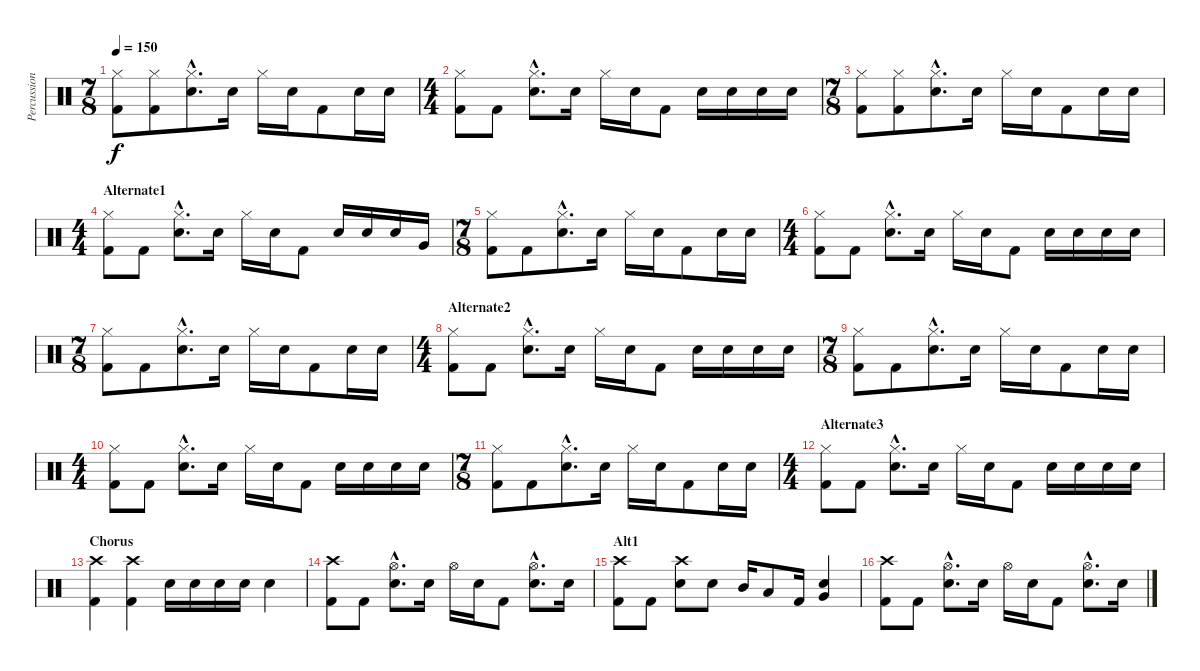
\track ("Percussion" "Percussion") {instrument percussion}
\staff {score}
\articulation defaults
\ts (7 8)
\tempo 150
\clef neutral
\ks c
("Hi-Hat (closed)" "Kick (hit) 2").8{dy f} ("Hi-Hat (closed)" "Kick (hit) 2").8 ("Hi-Hat (closed)"{hac} "Electric Snare (hit)"{hac}).8{d} "Electric Snare (hit)".16 "Hi-Hat (closed)".16 "Electric Snare (hit)".16 "Kick (hit) 2".8 "Electric Snare (hit)".16 "Electric Snare (hit)".16 |
\ts (4 4)
("Hi-Hat (closed)" "Kick (hit) 2").8 "Kick (hit) 2".8 ("Hi-Hat (closed)"{hac} "Electric Snare (hit)"{hac}).8{d} "Electric Snare (hit)".16 "Hi-Hat (closed)".16 "Electric Snare (hit)".16 "Kick (hit) 2".8 "Electric Snare (hit)".16 "Electric Snare (hit)".16 "Electric Snare (hit)".16 "Electric Snare (hit)".16 |
\ts (7 8)
("Hi-Hat (closed)" "Kick (hit) 2").8 ("Hi-Hat (closed)" "Kick (hit) 2").8 ("Hi-Hat (closed)"{hac} "Electric Snare (hit)"{hac}).8{d} "Electric Snare (hit)".16 "Hi-Hat (closed)".16 "Electric Snare (hit)".16 "Kick (hit) 2".8 "Electric Snare (hit)".16 "Electric Snare (hit)".16 |
\ts (4 4)
\section ("" "Alternate1")
("Hi-Hat (closed)" "Kick (hit) 2").8 "Kick (hit) 2".8 ("Hi-Hat (closed)"{hac} "Electric Snare (hit)"{hac}).8{d} "Electric Snare (hit)".16 "Hi-Hat (closed)".16 "Electric Snare (hit)".16 "Kick (hit) 2".8 "Electric Snare (hit)".16 "Electric Snare (hit)".16 "Electric Snare (hit)".16 "Very Low Tom (hit)".16 |
\ts (7 8)
("Hi-Hat (closed)" "Kick (hit) 2").8 "Kick (hit) 2".8 ("Hi-Hat (closed)"{hac} "Electric Snare (hit)"{hac}).8{d} "Electric Snare (hit)".16 "Hi-Hat (closed)".16 "Electric Snare (hit)".16 "Kick (hit) 2".8 "Electric Snare (hit)".16 "Electric Snare (hit)".16 |
\ts (4 4)
("Hi-Hat (closed)" "Kick (hit) 2").8 "Kick (hit) 2".8 ("Hi-Hat (closed)"{hac} "Electric Snare (hit)"{hac}).8{d} "Electric Snare (hit)".16 "Hi-Hat (closed)".16 "Electric Snare (hit)".16 "Kick (hit) 2".8 "Electric Snare (hit)".16 "Electric Snare (hit)".16 "Electric Snare (hit)".16 "Electric Snare (hit)".16 |
\ts (7 8)
("Hi-Hat (closed)" "Kick (hit) 2").8 "Kick (hit) 2".8 ("Hi-Hat (closed)"{hac} "Electric Snare (hit)"{hac}).8{d} "Electric Snare (hit)".16 "Hi-Hat (closed)".16 "Electric Snare (hit)".16 "Kick (hit) 2".8 "Electric Snare (hit)".16 "Electric Snare (hit)".16 |
\ts (4 4)
\section ("" "Alternate2")
("Hi-Hat (closed)" "Kick (hit) 2").8 "Kick (hit) 2".8 ("Hi-Hat (closed)"{hac} "Electric Snare (hit)"{hac}).8{d} "Electric Snare (hit)".16 "Hi-Hat (closed)".16 "Electric Snare (hit)".16 "Kick (hit) 2".8 "Electric Snare (hit)".16 "Electric Snare (hit)".16 "Electric Snare (hit)".16 "Electric Snare (hit)".16 |
\ts (7 8)
("Hi-Hat (closed)" "Kick (hit) 2").8 "Kick (hit) 2".8 ("Hi-Hat (closed)"{hac} "Electric Snare (hit)"{hac}).8{d} "Electric Snare (hit)".16 "Hi-Hat (closed)".16 "Electric Snare (hit)".16 "Kick (hit) 2".8 "Electric Snare (hit)".16 "Electric Snare (hit)".16 |
\ts (4 4)
("Hi-Hat (closed)" "Kick (hit) 2").8 "Kick (hit) 2".8 ("Hi-Hat (closed)"{hac} "Electric Snare (hit)"{hac}).8{d} "Electric Snare (hit)".16 "Hi-Hat (closed)".16 "Electric Snare (hit)".16 "Kick (hit) 2".8 "Electric Snare (hit)".16 "Electric Snare (hit)".16 "Electric Snare (hit)".16 "Electric Snare (hit)".16 |
\ts (7 8)
("Hi-Hat (closed)" "Kick (hit) 2").8 "Kick (hit) 2".8 ("Hi-Hat (closed)"{hac} "Electric Snare (hit)"{hac}).8{d} "Electric Snare (hit)".16 "Hi-Hat (closed)".16 "Electric Snare (hit)".16 "Kick (hit) 2".8 "Electric Snare (hit)".16 "Electric Snare (hit)".16 |
\ts (4 4)
\section ("" "Alternate3")
("Hi-Hat (closed)" "Kick (hit) 2").8 "Kick (hit) 2".8 ("Hi-Hat (closed)"{hac} "Electric Snare (hit)"{hac}).8{d} "Electric Snare (hit)".16 "Hi-Hat (closed)".16 "Electric Snare (hit)".16 "Kick (hit) 2".8 "Electric Snare (hit)".16 "Electric Snare (hit)".16 "Electric Snare (hit)".16 "Electric Snare (hit)".16 |
\section ("" "Chorus")
("Crash high (hit)" "Kick (hit) 2").4 ("Crash high (hit)" "Kick (hit) 2").4 "Electric Snare (hit)".16 "Electric Snare (hit)".16 "Electric Snare (hit)".16 "Electric Snare (hit)".16 "Electric Snare (hit)".4 |
("Crash high (hit)" "Kick (hit) 2").8 "Kick (hit) 2".8 ("Hi-Hat (open)"{hac} "Electric Snare (hit)"{hac}).8{d} "Electric Snare (hit)".16 "Hi-Hat (open)".16 "Electric Snare (hit)".16 "Kick (hit) 2".8 ("Hi-Hat (open)"{hac} "Electric Snare (hit)"{hac}).8{d} "Electric Snare (hit)".16 |
\section ("" "Alt1")
("Crash high (hit)" "Kick (hit) 2").8 "Kick (hit) 2".8 ("Crash high (hit)" "Electric Snare (hit)").8 "Electric Snare (hit)".8 "Mid Tom (hit)".16 "Low Tom (hit)".8 "Kick (hit) 2".16 ("Very Low Tom (hit)" "Electric Snare (hit)").4 |
("Crash high (hit)" "Kick (hit) 2").8 "Kick (hit) 2".8 ("Hi-Hat (open)"{hac} "Electric Snare (hit)"{hac}).8{d} "Electric Snare (hit)".16 "Hi-Hat (open)".16 "Electric Snare (hit)".16 "Kick (hit) 2".8 ("Hi-Hat (open)"{hac} "Electric Snare (hit)"{hac}).8{d} "Electric Snare (hit)".16
